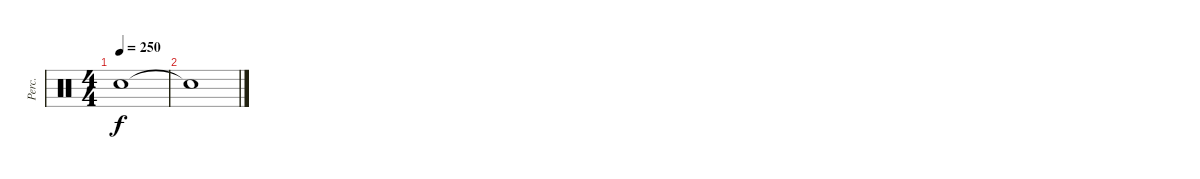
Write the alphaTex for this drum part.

\track ("Perc." "Perc.") {instrument percussion}
\staff {score}
\articulation defaults
\ts (4 4)
\tempo 250
\clef neutral
\ks c "Snare (hit)"{t}.1{dy f}
|
"Snare (hit)"{t}.1
